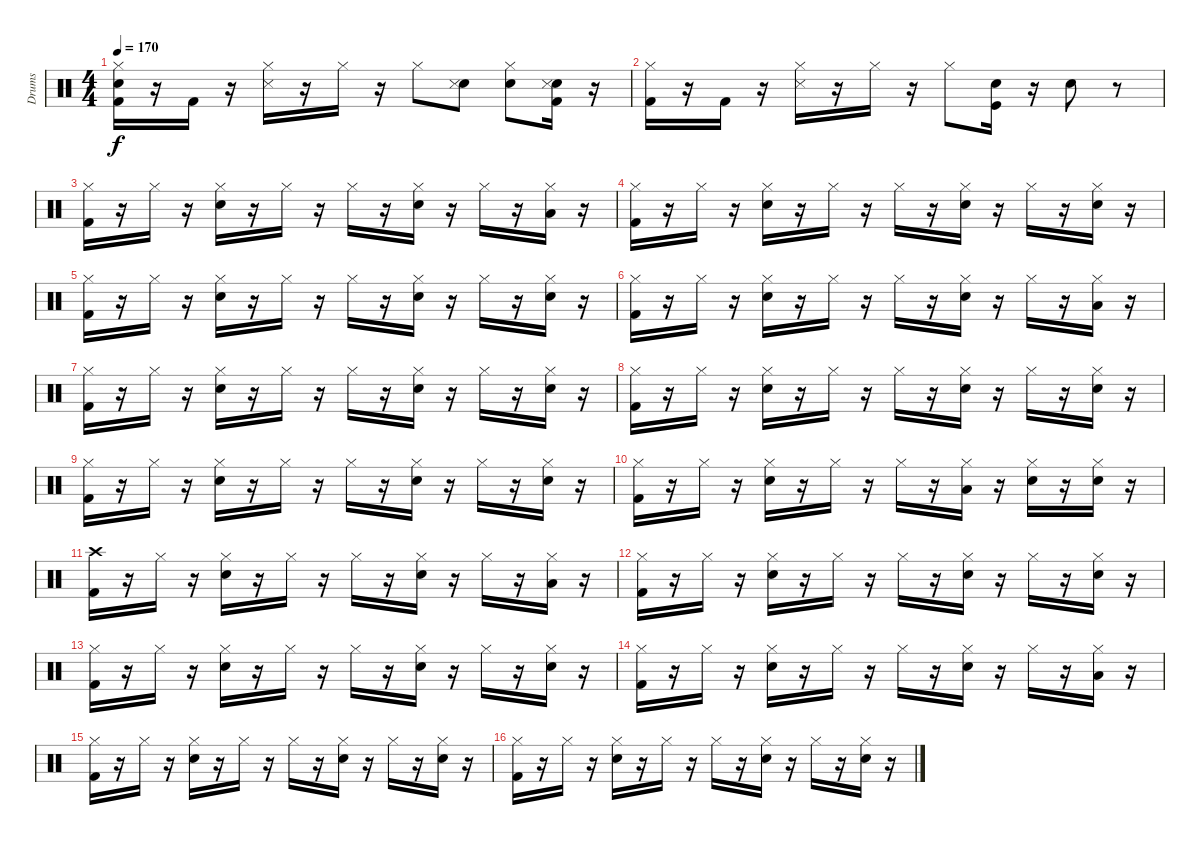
\track ("Drums" "Drums") {instrument percussion}
\staff {score}
\articulation defaults
\ts (4 4)
\tempo 170
\clef neutral
\ks c
("Snare (hit)" "Kick (hit) 2" "Hi-Hat (closed)").16{dy f} r.16 "Kick (hit) 2".16 r.16 ("Snare (side stick) 3" "Hi-Hat (closed)").16 r.16 "Hi-Hat (closed)".16 r.16 "Hi-Hat (closed)".8 ("Snare (hit)" "Snare (side stick) 3").8 ("Snare (hit)" "Hi-Hat (closed)").8 ("Snare (hit)" "Kick (hit) 2" "Snare (side stick) 3").16 r.16 |
("Kick (hit) 2" "Hi-Hat (closed)").16 r.16 "Kick (hit) 2".16 r.16 ("Snare (side stick) 3" "Hi-Hat (closed)").16 r.16 "Hi-Hat (closed)".16 r.16 "Hi-Hat (closed)".8 ("Snare (hit)" "Kick (hit)").16 r.16 "Electric Snare (hit)".8 r.8 |
("Kick (hit) 2" "Hi-Hat (closed)").16 r.16 "Hi-Hat (closed)".16 r.16 ("Electric Snare (hit)" "Hi-Hat (closed)").16 r.16 "Hi-Hat (closed)".16 r.16 "Hi-Hat (closed)".16 r.16 ("Electric Snare (hit)" "Hi-Hat (closed)").16 r.16 "Hi-Hat (closed)".16 r.16 ("Low Floor Tom (hit)" "Hi-Hat (closed)").16 r.16 |
("Kick (hit) 2" "Hi-Hat (closed)").16 r.16 "Hi-Hat (closed)".16 r.16 ("Electric Snare (hit)" "Hi-Hat (closed)").16 r.16 "Hi-Hat (closed)".16 r.16 "Hi-Hat (closed)".16 r.16 ("Electric Snare (hit)" "Hi-Hat (closed)").16 r.16 "Hi-Hat (closed)".16 r.16 ("Electric Snare (hit)" "Hi-Hat (closed)").16 r.16 |
("Kick (hit) 2" "Hi-Hat (closed)").16 r.16 "Hi-Hat (closed)".16 r.16 ("Electric Snare (hit)" "Hi-Hat (closed)").16 r.16 "Hi-Hat (closed)".16 r.16 "Hi-Hat (closed)".16 r.16 ("Electric Snare (hit)" "Hi-Hat (closed)").16 r.16 "Hi-Hat (closed)".16 r.16 ("Electric Snare (hit)" "Hi-Hat (closed)").16 r.16 |
("Kick (hit) 2" "Hi-Hat (closed)").16 r.16 "Hi-Hat (closed)".16 r.16 ("Electric Snare (hit)" "Hi-Hat (closed)").16 r.16 "Hi-Hat (closed)".16 r.16 "Hi-Hat (closed)".16 r.16 ("Electric Snare (hit)" "Hi-Hat (closed)").16 r.16 "Hi-Hat (closed)".16 r.16 ("Low Floor Tom (hit)" "Hi-Hat (closed)").16 r.16 |
("Kick (hit) 2" "Hi-Hat (closed)").16 r.16 "Hi-Hat (closed)".16 r.16 ("Electric Snare (hit)" "Hi-Hat (closed)").16 r.16 "Hi-Hat (closed)".16 r.16 "Hi-Hat (closed)".16 r.16 ("Electric Snare (hit)" "Hi-Hat (closed)").16 r.16 "Hi-Hat (closed)".16 r.16 ("Electric Snare (hit)" "Hi-Hat (closed)").16 r.16 |
("Kick (hit) 2" "Hi-Hat (closed)").16 r.16 "Hi-Hat (closed)".16 r.16 ("Electric Snare (hit)" "Hi-Hat (closed)").16 r.16 "Hi-Hat (closed)".16 r.16 "Hi-Hat (closed)".16 r.16 ("Electric Snare (hit)" "Hi-Hat (closed)").16 r.16 "Hi-Hat (closed)".16 r.16 ("Electric Snare (hit)" "Hi-Hat (closed)").16 r.16 |
("Kick (hit) 2" "Hi-Hat (closed)").16 r.16 "Hi-Hat (closed)".16 r.16 ("Electric Snare (hit)" "Hi-Hat (closed)").16 r.16 "Hi-Hat (closed)".16 r.16 "Hi-Hat (closed)".16 r.16 ("Electric Snare (hit)" "Hi-Hat (closed)").16 r.16 "Hi-Hat (closed)".16 r.16 ("Electric Snare (hit)" "Hi-Hat (closed)").16 r.16 |
("Kick (hit) 2" "Hi-Hat (closed)").16 r.16 "Hi-Hat (closed)".16 r.16 ("Electric Snare (hit)" "Hi-Hat (closed)").16 r.16 "Hi-Hat (closed)".16 r.16 "Hi-Hat (closed)".16 r.16 ("Low Floor Tom (hit)" "Hi-Hat (closed)").16 r.16 ("Electric Snare (hit)" "Hi-Hat (closed)").16 r.16 ("Electric Snare (hit)" "Hi-Hat (closed)").16 r.16 |
("Kick (hit) 2" "Crash high (hit)").16 r.16 "Hi-Hat (closed)".16 r.16 ("Electric Snare (hit)" "Hi-Hat (closed)").16 r.16 "Hi-Hat (closed)".16 r.16 "Hi-Hat (closed)".16 r.16 ("Electric Snare (hit)" "Hi-Hat (closed)").16 r.16 "Hi-Hat (closed)".16 r.16 ("Low Floor Tom (hit)" "Hi-Hat (closed)").16 r.16 |
("Kick (hit) 2" "Hi-Hat (closed)").16 r.16 "Hi-Hat (closed)".16 r.16 ("Electric Snare (hit)" "Hi-Hat (closed)").16 r.16 "Hi-Hat (closed)".16 r.16 "Hi-Hat (closed)".16 r.16 ("Electric Snare (hit)" "Hi-Hat (closed)").16 r.16 "Hi-Hat (closed)".16 r.16 ("Electric Snare (hit)" "Hi-Hat (closed)").16 r.16 |
("Kick (hit) 2" "Hi-Hat (closed)").16 r.16 "Hi-Hat (closed)".16 r.16 ("Electric Snare (hit)" "Hi-Hat (closed)").16 r.16 "Hi-Hat (closed)".16 r.16 "Hi-Hat (closed)".16 r.16 ("Electric Snare (hit)" "Hi-Hat (closed)").16 r.16 "Hi-Hat (closed)".16 r.16 ("Electric Snare (hit)" "Hi-Hat (closed)").16 r.16 |
("Kick (hit) 2" "Hi-Hat (closed)").16 r.16 "Hi-Hat (closed)".16 r.16 ("Electric Snare (hit)" "Hi-Hat (closed)").16 r.16 "Hi-Hat (closed)".16 r.16 "Hi-Hat (closed)".16 r.16 ("Electric Snare (hit)" "Hi-Hat (closed)").16 r.16 "Hi-Hat (closed)".16 r.16 ("Low Floor Tom (hit)" "Hi-Hat (closed)").16 r.16 |
("Kick (hit) 2" "Hi-Hat (closed)").16 r.16 "Hi-Hat (closed)".16 r.16 ("Electric Snare (hit)" "Hi-Hat (closed)").16 r.16 "Hi-Hat (closed)".16 r.16 "Hi-Hat (closed)".16 r.16 ("Electric Snare (hit)" "Hi-Hat (closed)").16 r.16 "Hi-Hat (closed)".16 r.16 ("Electric Snare (hit)" "Hi-Hat (closed)").16 r.16 |
("Kick (hit) 2" "Hi-Hat (closed)").16 r.16 "Hi-Hat (closed)".16 r.16 ("Electric Snare (hit)" "Hi-Hat (closed)").16 r.16 "Hi-Hat (closed)".16 r.16 "Hi-Hat (closed)".16 r.16 ("Electric Snare (hit)" "Hi-Hat (closed)").16 r.16 "Hi-Hat (closed)".16 r.16 ("Electric Snare (hit)" "Hi-Hat (closed)").16 r.16
